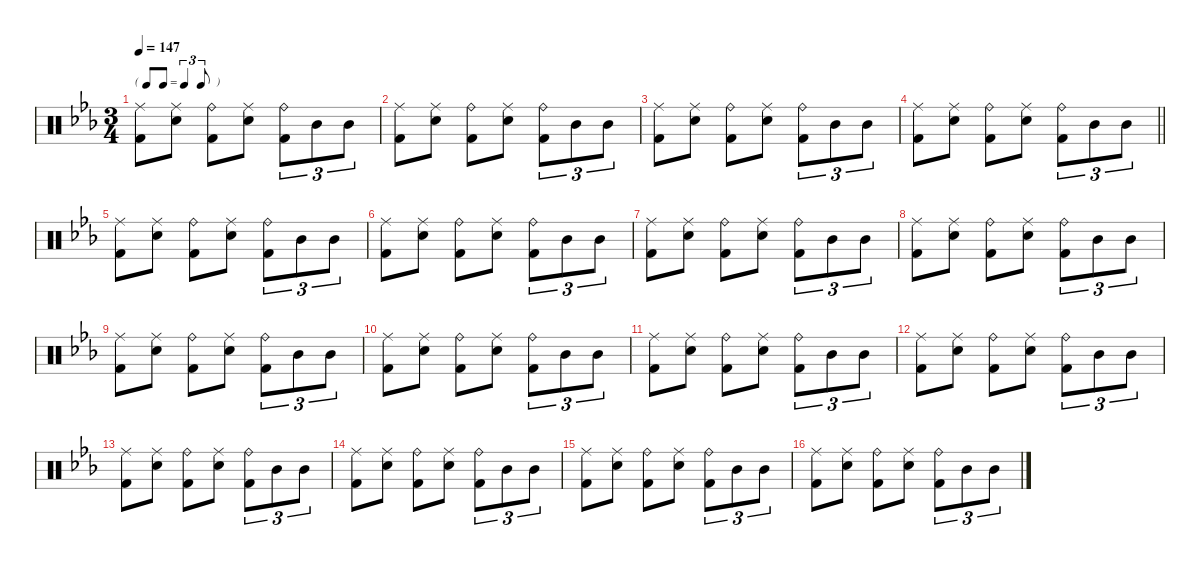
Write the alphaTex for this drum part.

\defaultSystemsLayout 4
\hideDynamics
\bracketExtendMode nobrackets
\singleTrackTrackNamePolicy hidden
\multiTrackTrackNamePolicy hidden
\firstSystemTrackNameMode fullname
\firstSystemTrackNameOrientation horizontal
\otherSystemsTrackNameOrientation horizontal
\track ("Percussion" "drm.") {defaultSystemsLayout 8 instrument percussion}
\staff {score}
\articulation defaults
\ts (3 4)
\tf triplet8th
\tempo 147
\clef neutral
\ks eb
("Ride (middle)"{acc forcenatural} "Kick (hit) 2"{acc forcenatural}).8{dy f beam Down} ("Ride (middle)"{acc forcenatural} "Snare (hit) 2"{acc forcenatural}).8{beam Down} ("Ride (bell)"{acc forcenatural} "Kick (hit) 2"{acc forcenatural}).8{beam Down} ("Ride (middle)"{acc forcenatural} "Snare (hit) 2"{acc forcenatural}).8{beam Down} ("Ride (bell)"{acc forcenatural} "Kick (hit) 2"{acc forcenatural}).8{tu (3 2) beam Down} "Mid Tom (hit)"{acc forcenatural}.8{tu (3 2) beam Down} "Mid Tom (hit)"{acc forcenatural}.8{tu (3 2) beam Down} |
("Ride (middle)"{acc forcenatural} "Kick (hit) 2"{acc forcenatural}).8{beam Down} ("Ride (middle)"{acc forcenatural} "Snare (hit) 2"{acc forcenatural}).8{beam Down} ("Ride (bell)"{acc forcenatural} "Kick (hit) 2"{acc forcenatural}).8{beam Down} ("Ride (middle)"{acc forcenatural} "Snare (hit) 2"{acc forcenatural}).8{beam Down} ("Ride (bell)"{acc forcenatural} "Kick (hit) 2"{acc forcenatural}).8{tu (3 2) beam Down} "Mid Tom (hit)"{acc forcenatural}.8{tu (3 2) beam Down} "Mid Tom (hit)"{acc forcenatural}.8{tu (3 2) beam Down} |
("Ride (middle)"{acc forcenatural} "Kick (hit) 2"{acc forcenatural}).8{beam Down} ("Ride (middle)"{acc forcenatural} "Snare (hit) 2"{acc forcenatural}).8{beam Down} ("Ride (bell)"{acc forcenatural} "Kick (hit) 2"{acc forcenatural}).8{beam Down} ("Ride (middle)"{acc forcenatural} "Snare (hit) 2"{acc forcenatural}).8{beam Down} ("Ride (bell)"{acc forcenatural} "Kick (hit) 2"{acc forcenatural}).8{tu (3 2) beam Down} "Mid Tom (hit)"{acc forcenatural}.8{tu (3 2) beam Down} "Mid Tom (hit)"{acc forcenatural}.8{tu (3 2) beam Down} |
\barLineRight lightlight
("Ride (middle)"{acc forcenatural} "Kick (hit) 2"{acc forcenatural}).8{beam Down} ("Ride (middle)"{acc forcenatural} "Snare (hit) 2"{acc forcenatural}).8{beam Down} ("Ride (bell)"{acc forcenatural} "Kick (hit) 2"{acc forcenatural}).8{beam Down} ("Ride (middle)"{acc forcenatural} "Snare (hit) 2"{acc forcenatural}).8{beam Down} ("Ride (bell)"{acc forcenatural} "Kick (hit) 2"{acc forcenatural}).8{tu (3 2) beam Down} "Mid Tom (hit)"{acc forcenatural}.8{tu (3 2) beam Down} "Mid Tom (hit)"{acc forcenatural}.8{tu (3 2) beam Down} |
("Ride (middle)"{acc forcenatural} "Kick (hit) 2"{acc forcenatural}).8{beam Down} ("Ride (middle)"{acc forcenatural} "Snare (hit) 2"{acc forcenatural}).8{beam Down} ("Ride (bell)"{acc forcenatural} "Kick (hit) 2"{acc forcenatural}).8{beam Down} ("Ride (middle)"{acc forcenatural} "Snare (hit) 2"{acc forcenatural}).8{beam Down} ("Ride (bell)"{acc forcenatural} "Kick (hit) 2"{acc forcenatural}).8{tu (3 2) beam Down} "Mid Tom (hit)"{acc forcenatural}.8{tu (3 2) beam Down} "Mid Tom (hit)"{acc forcenatural}.8{tu (3 2) beam Down} |
("Ride (middle)"{acc forcenatural} "Kick (hit) 2"{acc forcenatural}).8{beam Down} ("Ride (middle)"{acc forcenatural} "Snare (hit) 2"{acc forcenatural}).8{beam Down} ("Ride (bell)"{acc forcenatural} "Kick (hit) 2"{acc forcenatural}).8{beam Down} ("Ride (middle)"{acc forcenatural} "Snare (hit) 2"{acc forcenatural}).8{beam Down} ("Ride (bell)"{acc forcenatural} "Kick (hit) 2"{acc forcenatural}).8{tu (3 2) beam Down} "Mid Tom (hit)"{acc forcenatural}.8{tu (3 2) beam Down} "Mid Tom (hit)"{acc forcenatural}.8{tu (3 2) beam Down} |
("Ride (middle)"{acc forcenatural} "Kick (hit) 2"{acc forcenatural}).8{beam Down} ("Ride (middle)"{acc forcenatural} "Snare (hit) 2"{acc forcenatural}).8{beam Down} ("Ride (bell)"{acc forcenatural} "Kick (hit) 2"{acc forcenatural}).8{beam Down} ("Ride (middle)"{acc forcenatural} "Snare (hit) 2"{acc forcenatural}).8{beam Down} ("Ride (bell)"{acc forcenatural} "Kick (hit) 2"{acc forcenatural}).8{tu (3 2) beam Down} "Mid Tom (hit)"{acc forcenatural}.8{tu (3 2) beam Down} "Mid Tom (hit)"{acc forcenatural}.8{tu (3 2) beam Down} |
("Ride (middle)"{acc forcenatural} "Kick (hit) 2"{acc forcenatural}).8{beam Down} ("Ride (middle)"{acc forcenatural} "Snare (hit) 2"{acc forcenatural}).8{beam Down} ("Ride (bell)"{acc forcenatural} "Kick (hit) 2"{acc forcenatural}).8{beam Down} ("Ride (middle)"{acc forcenatural} "Snare (hit) 2"{acc forcenatural}).8{beam Down} ("Ride (bell)"{acc forcenatural} "Kick (hit) 2"{acc forcenatural}).8{tu (3 2) beam Down} "Mid Tom (hit)"{acc forcenatural}.8{tu (3 2) beam Down} "Mid Tom (hit)"{acc forcenatural}.8{tu (3 2) beam Down} |
("Ride (middle)"{acc forcenatural} "Kick (hit) 2"{acc forcenatural}).8{beam Down} ("Ride (middle)"{acc forcenatural} "Snare (hit) 2"{acc forcenatural}).8{beam Down} ("Ride (bell)"{acc forcenatural} "Kick (hit) 2"{acc forcenatural}).8{beam Down} ("Ride (middle)"{acc forcenatural} "Snare (hit) 2"{acc forcenatural}).8{beam Down} ("Ride (bell)"{acc forcenatural} "Kick (hit) 2"{acc forcenatural}).8{tu (3 2) beam Down} "Mid Tom (hit)"{acc forcenatural}.8{tu (3 2) beam Down} "Mid Tom (hit)"{acc forcenatural}.8{tu (3 2) beam Down} |
("Ride (middle)"{acc forcenatural} "Kick (hit) 2"{acc forcenatural}).8{beam Down} ("Ride (middle)"{acc forcenatural} "Snare (hit) 2"{acc forcenatural}).8{beam Down} ("Ride (bell)"{acc forcenatural} "Kick (hit) 2"{acc forcenatural}).8{beam Down} ("Ride (middle)"{acc forcenatural} "Snare (hit) 2"{acc forcenatural}).8{beam Down} ("Ride (bell)"{acc forcenatural} "Kick (hit) 2"{acc forcenatural}).8{tu (3 2) beam Down} "Mid Tom (hit)"{acc forcenatural}.8{tu (3 2) beam Down} "Mid Tom (hit)"{acc forcenatural}.8{tu (3 2) beam Down} |
("Ride (middle)"{acc forcenatural} "Kick (hit) 2"{acc forcenatural}).8{beam Down} ("Ride (middle)"{acc forcenatural} "Snare (hit) 2"{acc forcenatural}).8{beam Down} ("Ride (bell)"{acc forcenatural} "Kick (hit) 2"{acc forcenatural}).8{beam Down} ("Ride (middle)"{acc forcenatural} "Snare (hit) 2"{acc forcenatural}).8{beam Down} ("Ride (bell)"{acc forcenatural} "Kick (hit) 2"{acc forcenatural}).8{tu (3 2) beam Down} "Mid Tom (hit)"{acc forcenatural}.8{tu (3 2) beam Down} "Mid Tom (hit)"{acc forcenatural}.8{tu (3 2) beam Down} |
("Ride (middle)"{acc forcenatural} "Kick (hit) 2"{acc forcenatural}).8{beam Down} ("Ride (middle)"{acc forcenatural} "Snare (hit) 2"{acc forcenatural}).8{beam Down} ("Ride (bell)"{acc forcenatural} "Kick (hit) 2"{acc forcenatural}).8{beam Down} ("Ride (middle)"{acc forcenatural} "Snare (hit) 2"{acc forcenatural}).8{beam Down} ("Ride (bell)"{acc forcenatural} "Kick (hit) 2"{acc forcenatural}).8{tu (3 2) beam Down} "Mid Tom (hit)"{acc forcenatural}.8{tu (3 2) beam Down} "Mid Tom (hit)"{acc forcenatural}.8{tu (3 2) beam Down} |
("Ride (middle)"{acc forcenatural} "Kick (hit) 2"{acc forcenatural}).8{beam Down} ("Ride (middle)"{acc forcenatural} "Snare (hit) 2"{acc forcenatural}).8{beam Down} ("Ride (bell)"{acc forcenatural} "Kick (hit) 2"{acc forcenatural}).8{beam Down} ("Ride (middle)"{acc forcenatural} "Snare (hit) 2"{acc forcenatural}).8{beam Down} ("Ride (bell)"{acc forcenatural} "Kick (hit) 2"{acc forcenatural}).8{tu (3 2) beam Down} "Mid Tom (hit)"{acc forcenatural}.8{tu (3 2) beam Down} "Mid Tom (hit)"{acc forcenatural}.8{tu (3 2) beam Down} |
("Ride (middle)"{acc forcenatural} "Kick (hit) 2"{acc forcenatural}).8{beam Down} ("Ride (middle)"{acc forcenatural} "Snare (hit) 2"{acc forcenatural}).8{beam Down} ("Ride (bell)"{acc forcenatural} "Kick (hit) 2"{acc forcenatural}).8{beam Down} ("Ride (middle)"{acc forcenatural} "Snare (hit) 2"{acc forcenatural}).8{beam Down} ("Ride (bell)"{acc forcenatural} "Kick (hit) 2"{acc forcenatural}).8{tu (3 2) beam Down} "Mid Tom (hit)"{acc forcenatural}.8{tu (3 2) beam Down} "Mid Tom (hit)"{acc forcenatural}.8{tu (3 2) beam Down} |
("Ride (middle)"{acc forcenatural} "Kick (hit) 2"{acc forcenatural}).8{beam Down} ("Ride (middle)"{acc forcenatural} "Snare (hit) 2"{acc forcenatural}).8{beam Down} ("Ride (bell)"{acc forcenatural} "Kick (hit) 2"{acc forcenatural}).8{beam Down} ("Ride (middle)"{acc forcenatural} "Snare (hit) 2"{acc forcenatural}).8{beam Down} ("Ride (bell)"{acc forcenatural} "Kick (hit) 2"{acc forcenatural}).8{tu (3 2) beam Down} "Mid Tom (hit)"{acc forcenatural}.8{tu (3 2) beam Down} "Mid Tom (hit)"{acc forcenatural}.8{tu (3 2) beam Down} |
("Ride (middle)"{acc forcenatural} "Kick (hit) 2"{acc forcenatural}).8{beam Down} ("Ride (middle)"{acc forcenatural} "Snare (hit) 2"{acc forcenatural}).8{beam Down} ("Ride (bell)"{acc forcenatural} "Kick (hit) 2"{acc forcenatural}).8{beam Down} ("Ride (middle)"{acc forcenatural} "Snare (hit) 2"{acc forcenatural}).8{beam Down} ("Ride (bell)"{acc forcenatural} "Kick (hit) 2"{acc forcenatural}).8{tu (3 2) beam Down} "Mid Tom (hit)"{acc forcenatural}.8{tu (3 2) beam Down} "Mid Tom (hit)"{acc forcenatural}.8{tu (3 2) beam Down}
